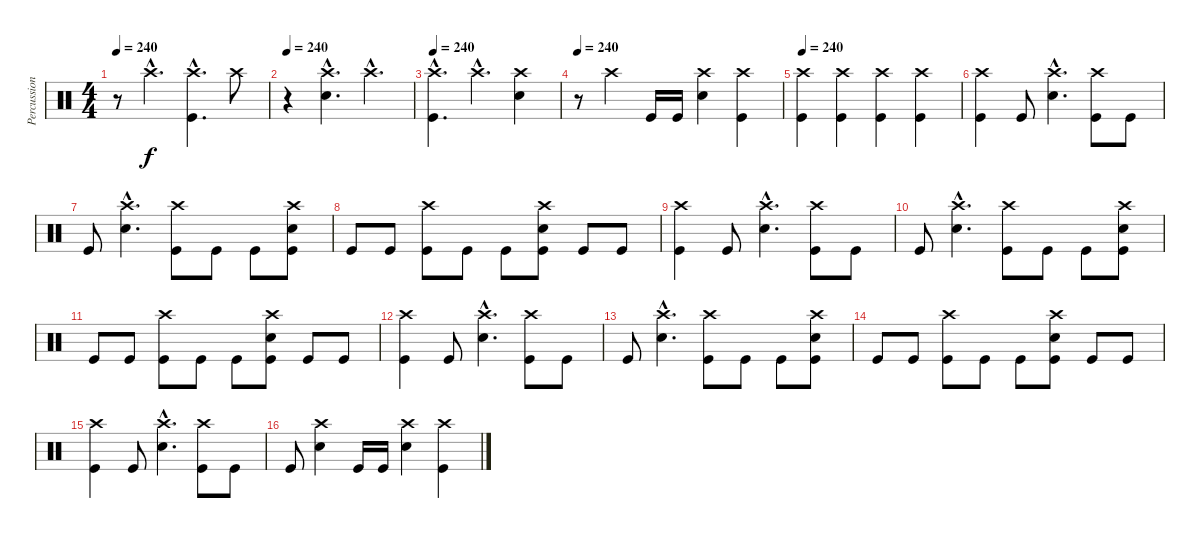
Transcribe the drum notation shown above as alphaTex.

\track ("Percussion" "Percussion") {instrument percussion}
\staff {score}
\articulation defaults
\ts (4 4)
\tempo 240
\clef neutral
\ks c
r.8{dy f} "Crash high (hit)"{hac}.4{d} ("Crash high (hit)"{hac} "Kick (hit)"{hac}).4{d} "Crash high (hit)".8 |
\tempo 240
r.4 ("Crash high (hit)"{hac} "Electric Snare (hit)"{hac}).4{d} "Crash high (hit)"{hac}.4{d} |
\tempo 240
("Crash high (hit)"{hac} "Kick (hit)"{hac}).4{d} "Crash high (hit)"{hac}.4{d} ("Crash high (hit)" "Electric Snare (hit)").4 |
\tempo 240
r.8 "Crash high (hit)".4 "Kick (hit)".16 "Kick (hit)".16 ("Crash high (hit)" "Electric Snare (hit)").4 ("Crash high (hit)" "Kick (hit)").4 |
\tempo 240
("Crash high (hit)" "Kick (hit)").4 ("Crash high (hit)" "Kick (hit)").4 ("Crash high (hit)" "Kick (hit)").4 ("Crash high (hit)" "Kick (hit)").4 |
("Crash high (hit)" "Kick (hit)").4 "Kick (hit)".8 ("Crash high (hit)"{hac} "Electric Snare (hit)"{hac}).4{d} ("Crash high (hit)" "Kick (hit)").8 "Kick (hit)".8 |
"Kick (hit)".8 ("Crash high (hit)"{hac} "Electric Snare (hit)"{hac}).4{d} ("Crash high (hit)" "Kick (hit)").8 "Kick (hit)".8 "Kick (hit)".8 ("Crash high (hit)" "Electric Snare (hit)" "Kick (hit)").8 |
"Kick (hit)".8 "Kick (hit)".8 ("Crash high (hit)" "Kick (hit)").8 "Kick (hit)".8 "Kick (hit)".8 ("Crash high (hit)" "Electric Snare (hit)" "Kick (hit)").8 "Kick (hit)".8 "Kick (hit)".8 |
("Crash high (hit)" "Kick (hit)").4 "Kick (hit)".8 ("Crash high (hit)"{hac} "Electric Snare (hit)"{hac}).4{d} ("Crash high (hit)" "Kick (hit)").8 "Kick (hit)".8 |
"Kick (hit)".8 ("Crash high (hit)"{hac} "Electric Snare (hit)"{hac}).4{d} ("Crash high (hit)" "Kick (hit)").8 "Kick (hit)".8 "Kick (hit)".8 ("Crash high (hit)" "Electric Snare (hit)" "Kick (hit)").8 |
"Kick (hit)".8 "Kick (hit)".8 ("Crash high (hit)" "Kick (hit)").8 "Kick (hit)".8 "Kick (hit)".8 ("Crash high (hit)" "Electric Snare (hit)" "Kick (hit)").8 "Kick (hit)".8 "Kick (hit)".8 |
("Crash high (hit)" "Kick (hit)").4 "Kick (hit)".8 ("Crash high (hit)"{hac} "Electric Snare (hit)"{hac}).4{d} ("Crash high (hit)" "Kick (hit)").8 "Kick (hit)".8 |
"Kick (hit)".8 ("Crash high (hit)"{hac} "Electric Snare (hit)"{hac}).4{d} ("Crash high (hit)" "Kick (hit)").8 "Kick (hit)".8 "Kick (hit)".8 ("Crash high (hit)" "Electric Snare (hit)" "Kick (hit)").8 |
"Kick (hit)".8 "Kick (hit)".8 ("Crash high (hit)" "Kick (hit)").8 "Kick (hit)".8 "Kick (hit)".8 ("Crash high (hit)" "Electric Snare (hit)" "Kick (hit)").8 "Kick (hit)".8 "Kick (hit)".8 |
("Crash high (hit)" "Kick (hit)").4 "Kick (hit)".8 ("Crash high (hit)"{hac} "Electric Snare (hit)"{hac}).4{d} ("Crash high (hit)" "Kick (hit)").8 "Kick (hit)".8 |
"Kick (hit)".8 ("Crash high (hit)" "Electric Snare (hit)").4 "Kick (hit)".16 "Kick (hit)".16 ("Crash high (hit)" "Electric Snare (hit)").4 ("Crash high (hit)" "Kick (hit)").4
